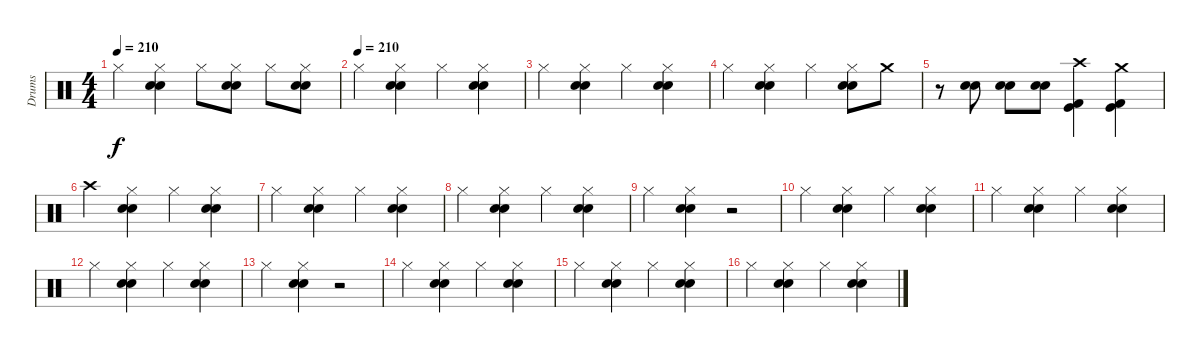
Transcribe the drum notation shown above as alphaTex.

\track ("Drums" "Drums") {instrument percussion}
\staff {score}
\articulation defaults
\ts (4 4)
\tempo 210
\clef neutral
\ks c "Hi-Hat (closed)".4{dy f}
("Hi-Hat (closed)" "Electric Snare (hit)" "Snare (hit) 2").4 "Hi-Hat (closed)".8 ("Hi-Hat (closed)" "Electric Snare (hit)" "Snare (hit) 2").8 "Hi-Hat (closed)".8 ("Hi-Hat (closed)" "Electric Snare (hit)" "Snare (hit) 2").8 |
\tempo (210)
"Hi-Hat (closed)".4 ("Hi-Hat (closed)" "Electric Snare (hit)" "Snare (hit) 2").4 "Hi-Hat (closed)".4 ("Hi-Hat (closed)" "Electric Snare (hit)" "Snare (hit) 2").4 |
"Hi-Hat (closed)".4 ("Hi-Hat (closed)" "Electric Snare (hit)" "Snare (hit) 2").4 "Hi-Hat (closed)".4 ("Hi-Hat (closed)" "Electric Snare (hit)" "Snare (hit) 2").4 |
"Hi-Hat (closed)".4 ("Hi-Hat (closed)" "Electric Snare (hit)" "Snare (hit) 2").4 "Hi-Hat (closed)".4 ("Hi-Hat (closed)" "Electric Snare (hit)" "Snare (hit) 2").8 "Crash medium (hit)".8 |
r.8 ("Electric Snare (hit)" "Snare (hit) 2").8 ("Electric Snare (hit)" "Snare (hit) 2").8 ("Electric Snare (hit)" "Snare (hit) 2").8 ("Kick (hit) 2" "Kick (hit)" "Crash high (hit)").4 ("Kick (hit) 2" "Kick (hit)" "Crash medium (hit)").4 |
"Crash high (hit)".4 ("Hi-Hat (closed)" "Electric Snare (hit)" "Snare (hit) 2").4 "Hi-Hat (closed)".4 ("Hi-Hat (closed)" "Electric Snare (hit)" "Snare (hit) 2").4 |
"Hi-Hat (closed)".4 ("Hi-Hat (closed)" "Electric Snare (hit)" "Snare (hit) 2").4 "Hi-Hat (closed)".4 ("Hi-Hat (closed)" "Electric Snare (hit)" "Snare (hit) 2").4 |
"Hi-Hat (closed)".4 ("Hi-Hat (closed)" "Electric Snare (hit)" "Snare (hit) 2").4 "Hi-Hat (closed)".4 ("Hi-Hat (closed)" "Electric Snare (hit)" "Snare (hit) 2").4 |
"Hi-Hat (closed)".4 ("Hi-Hat (closed)" "Electric Snare (hit)" "Snare (hit) 2").4 r.2 |
"Hi-Hat (closed)".4 ("Hi-Hat (closed)" "Electric Snare (hit)" "Snare (hit) 2").4 "Hi-Hat (closed)".4 ("Hi-Hat (closed)" "Electric Snare (hit)" "Snare (hit) 2").4 |
"Hi-Hat (closed)".4 ("Hi-Hat (closed)" "Electric Snare (hit)" "Snare (hit) 2").4 "Hi-Hat (closed)".4 ("Hi-Hat (closed)" "Electric Snare (hit)" "Snare (hit) 2").4 |
"Hi-Hat (closed)".4 ("Hi-Hat (closed)" "Electric Snare (hit)" "Snare (hit) 2").4 "Hi-Hat (closed)".4 ("Hi-Hat (closed)" "Electric Snare (hit)" "Snare (hit) 2").4 |
"Hi-Hat (closed)".4 ("Hi-Hat (closed)" "Electric Snare (hit)" "Snare (hit) 2").4 r.2 |
"Hi-Hat (closed)".4 ("Hi-Hat (closed)" "Electric Snare (hit)" "Snare (hit) 2").4 "Hi-Hat (closed)".4 ("Hi-Hat (closed)" "Electric Snare (hit)" "Snare (hit) 2").4 |
"Hi-Hat (closed)".4 ("Hi-Hat (closed)" "Electric Snare (hit)" "Snare (hit) 2").4 "Hi-Hat (closed)".4 ("Hi-Hat (closed)" "Electric Snare (hit)" "Snare (hit) 2").4 |
"Hi-Hat (closed)".4 ("Hi-Hat (closed)" "Electric Snare (hit)" "Snare (hit) 2").4 "Hi-Hat (closed)".4 ("Hi-Hat (closed)" "Electric Snare (hit)" "Snare (hit) 2").4
